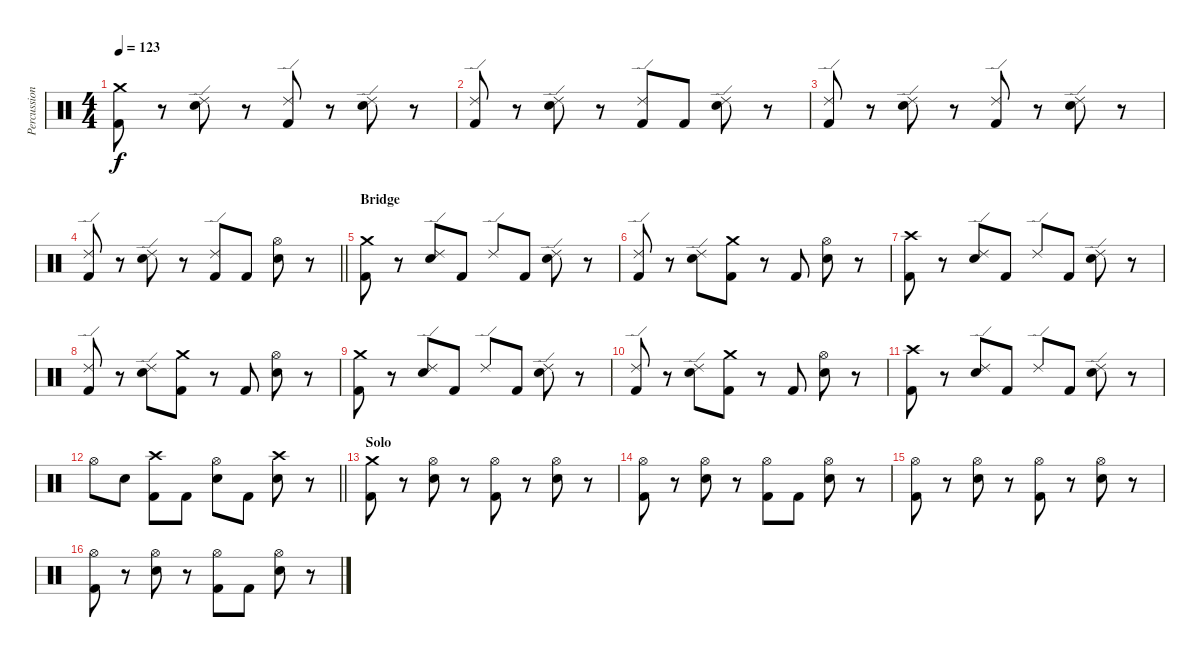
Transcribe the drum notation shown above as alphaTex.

\track ("Percussion" "Percussion") {instrument percussion}
\staff {score}
\articulation defaults
\ts (4 4)
\tempo 123
\clef neutral
\ks c
("Crash medium (hit)" "Kick (hit) 2").8{dy f} r.8 ("Ride (edge) 2" "Electric Snare (hit)").8 r.8 ("Ride (edge) 2" "Kick (hit) 2").8 r.8 ("Ride (edge) 2" "Electric Snare (hit)").8 r.8 |
("Ride (edge) 2" "Kick (hit) 2").8 r.8 ("Ride (edge) 2" "Electric Snare (hit)").8 r.8 ("Ride (edge) 2" "Kick (hit) 2").8 "Kick (hit) 2".8 ("Ride (edge) 2" "Electric Snare (hit)").8 r.8 |
("Ride (edge) 2" "Kick (hit) 2").8 r.8 ("Ride (edge) 2" "Electric Snare (hit)").8 r.8 ("Ride (edge) 2" "Kick (hit) 2").8 r.8 ("Ride (edge) 2" "Electric Snare (hit)").8 r.8 |
\barLineRight lightlight
("Ride (edge) 2" "Kick (hit) 2").8 r.8 ("Ride (edge) 2" "Electric Snare (hit)").8 r.8 ("Ride (edge) 2" "Kick (hit) 2").8 "Kick (hit) 2".8 ("Hi-Hat (open)" "Electric Snare (hit)").8 r.8 |
\section ("" "Bridge")
("Crash medium (hit)" "Kick (hit) 2").8 r.8 ("Ride (edge) 2" "Electric Snare (hit)").8 "Kick (hit) 2".8 "Ride (edge) 2".8 "Kick (hit) 2".8 ("Ride (edge) 2" "Electric Snare (hit)").8 r.8 |
("Ride (edge) 2" "Kick (hit) 2").8 r.8 ("Ride (edge) 2" "Electric Snare (hit)").8 ("Crash medium (hit)" "Kick (hit) 2").8 r.8 "Kick (hit) 2".8 ("Hi-Hat (open)" "Electric Snare (hit)").8 r.8 |
("Crash high (hit)" "Kick (hit) 2").8 r.8 ("Ride (edge) 2" "Electric Snare (hit)").8 "Kick (hit) 2".8 "Ride (edge) 2".8 "Kick (hit) 2".8 ("Ride (edge) 2" "Electric Snare (hit)").8 r.8 |
("Ride (edge) 2" "Kick (hit) 2").8 r.8 ("Ride (edge) 2" "Electric Snare (hit)").8 ("Crash medium (hit)" "Kick (hit) 2").8 r.8 "Kick (hit) 2".8 ("Hi-Hat (open)" "Electric Snare (hit)").8 r.8 |
("Crash medium (hit)" "Kick (hit) 2").8 r.8 ("Ride (edge) 2" "Electric Snare (hit)").8 "Kick (hit) 2".8 "Ride (edge) 2".8 "Kick (hit) 2".8 ("Ride (edge) 2" "Electric Snare (hit)").8 r.8 |
("Ride (edge) 2" "Kick (hit) 2").8 r.8 ("Ride (edge) 2" "Electric Snare (hit)").8 ("Crash medium (hit)" "Kick (hit) 2").8 r.8 "Kick (hit) 2".8 ("Hi-Hat (open)" "Electric Snare (hit)").8 r.8 |
("Crash high (hit)" "Kick (hit) 2").8 r.8 ("Ride (edge) 2" "Electric Snare (hit)").8 "Kick (hit) 2".8 "Ride (edge) 2".8 "Kick (hit) 2".8 ("Ride (edge) 2" "Electric Snare (hit)").8 r.8 |
\barLineRight lightlight "Hi-Hat (open)".8 "Electric Snare (hit)".8
("Crash high (hit)" "Kick (hit) 2").8 "Kick (hit) 2".8 ("Hi-Hat (open)" "Electric Snare (hit)").8 "Kick (hit) 2".8 ("Crash high (hit)" "Electric Snare (hit)").8 r.8 |
\section ("" "Solo")
("Crash medium (hit)" "Kick (hit) 2").8 r.8 ("Hi-Hat (open)" "Electric Snare (hit)").8 r.8 ("Hi-Hat (open)" "Kick (hit) 2").8 r.8 ("Hi-Hat (open)" "Electric Snare (hit)").8 r.8 |
("Hi-Hat (open)" "Kick (hit) 2").8 r.8 ("Hi-Hat (open)" "Electric Snare (hit)").8 r.8 ("Hi-Hat (open)" "Kick (hit) 2").8 "Kick (hit) 2".8 ("Hi-Hat (open)" "Electric Snare (hit)").8 r.8 |
("Hi-Hat (open)" "Kick (hit) 2").8 r.8 ("Hi-Hat (open)" "Electric Snare (hit)").8 r.8 ("Hi-Hat (open)" "Kick (hit) 2").8 r.8 ("Hi-Hat (open)" "Electric Snare (hit)").8 r.8 |
("Hi-Hat (open)" "Kick (hit) 2").8 r.8 ("Hi-Hat (open)" "Electric Snare (hit)").8 r.8 ("Hi-Hat (open)" "Kick (hit) 2").8 "Kick (hit) 2".8 ("Hi-Hat (open)" "Electric Snare (hit)").8 r.8
